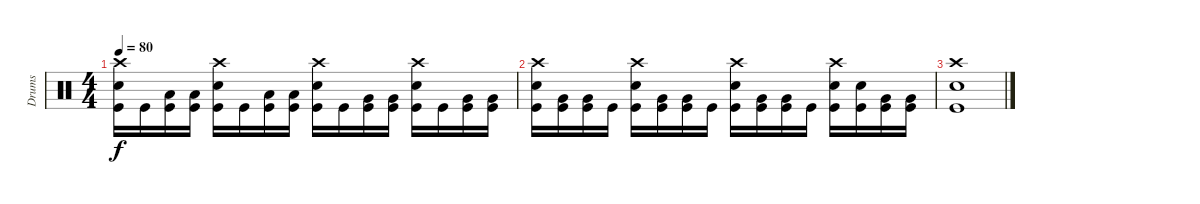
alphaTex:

\track ("Drums" "Drums") {instrument percussion}
\staff {score}
\articulation defaults
\ts (4 4)
\tempo 80
\clef neutral
\ks c
("Crash high (hit)" "Kick (hit)" "Snare (hit) 2").16{dy f} "Kick (hit)".16 ("Kick (hit)" "Low Tom (hit)").16 ("Kick (hit)" "Low Tom (hit)").16 ("Crash high (hit)" "Kick (hit)" "Snare (hit) 2").16 "Kick (hit)".16 ("Kick (hit)" "Low Tom (hit)").16 ("Kick (hit)" "Low Tom (hit)").16 ("Crash high (hit)" "Kick (hit)" "Snare (hit) 2").16 "Kick (hit)".16 ("Kick (hit)" "Very Low Tom (hit)").16 ("Kick (hit)" "Very Low Tom (hit)").16 ("Crash high (hit)" "Kick (hit)" "Snare (hit) 2").16 "Kick (hit)".16 ("Kick (hit)" "Very Low Tom (hit)").16 ("Kick (hit)" "Very Low Tom (hit)").16 |
("Crash high (hit)" "Kick (hit)" "Snare (hit) 2").16 ("Kick (hit)" "Very Low Tom (hit)").16 ("Kick (hit)" "Very Low Tom (hit)").16 "Kick (hit)".16 ("Crash high (hit)" "Kick (hit)" "Snare (hit) 2").16 ("Kick (hit)" "Very Low Tom (hit)").16 ("Kick (hit)" "Very Low Tom (hit)").16 "Kick (hit)".16 ("Crash high (hit)" "Kick (hit)" "Snare (hit) 2").16 ("Kick (hit)" "Very Low Tom (hit)").16 ("Kick (hit)" "Very Low Tom (hit)").16 "Kick (hit)".16 ("Crash high (hit)" "Kick (hit)" "Snare (hit) 2").16 ("Kick (hit)" "Snare (hit) 2").16 ("Kick (hit)" "Very Low Tom (hit)").16 ("Kick (hit)" "Very Low Tom (hit)").16 |
("Crash high (hit)" "Kick (hit)" "Snare (hit) 2").1
